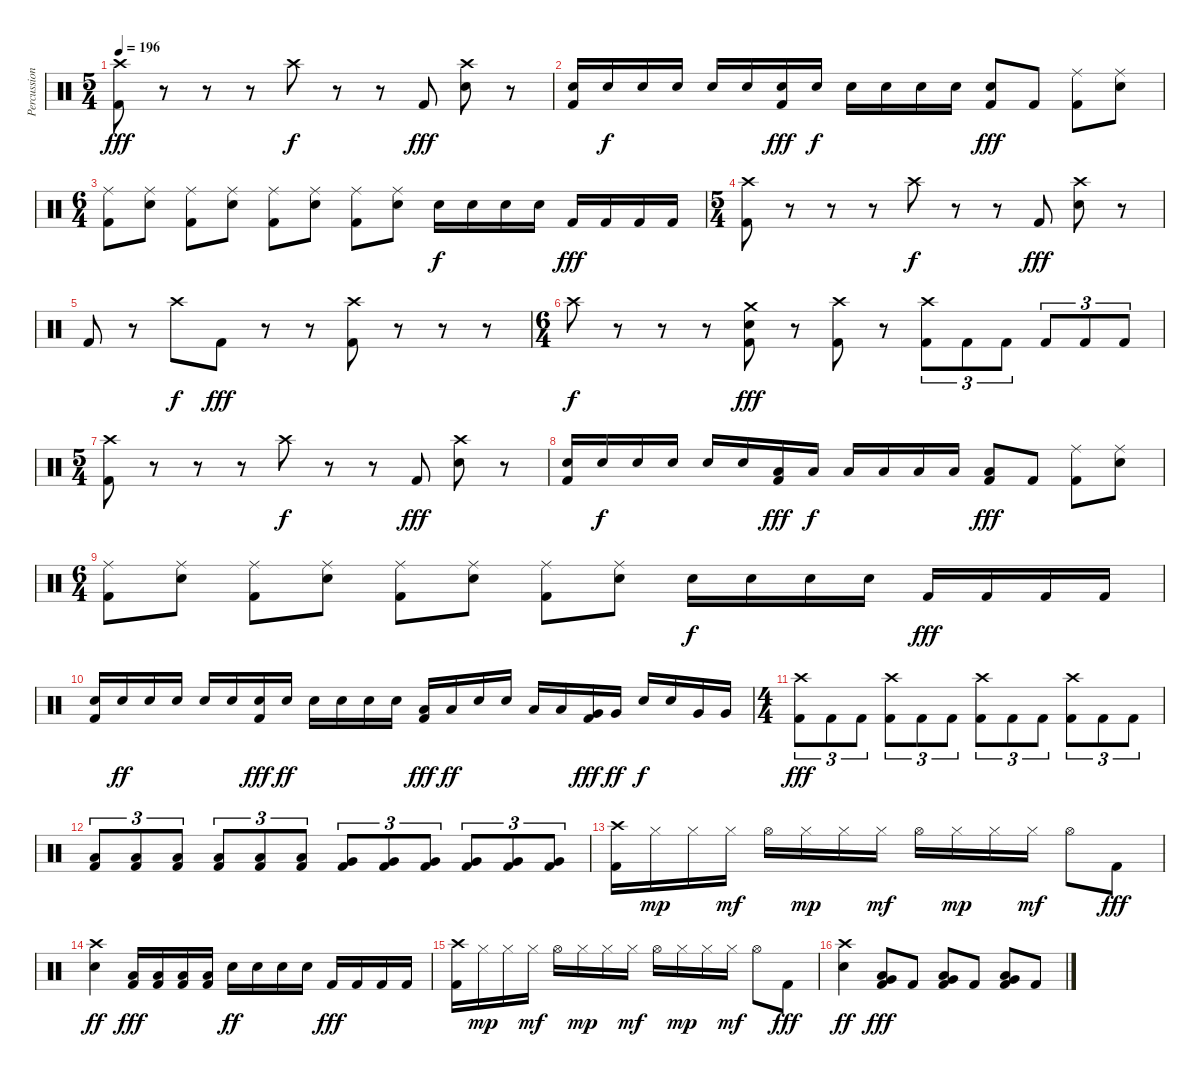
\track ("Percussion" "Percussion") {instrument percussion}
\staff {score}
\articulation defaults
\ts (5 4)
\tempo 196
\clef neutral
\ks c
("Crash high (hit)" "Kick (hit) 2").8{dy fff} r.8 r.8 r.8 "Crash high (hit)".8{dy f} r.8 r.8 "Kick (hit) 2".8{dy fff} ("Crash high (hit)" "Electric Snare (hit)").8 r.8 |
("Electric Snare (hit)" "Kick (hit) 2").16 "Electric Snare (hit)".16{dy f} "Electric Snare (hit)".16 "Electric Snare (hit)".16 "Electric Snare (hit)".16 "Electric Snare (hit)".16 ("Electric Snare (hit)" "Kick (hit) 2").16{dy fff} "Electric Snare (hit)".16{dy f} "Electric Snare (hit)".16 "Electric Snare (hit)".16 "Electric Snare (hit)".16 "Electric Snare (hit)".16 ("Electric Snare (hit)" "Kick (hit) 2").8{dy fff} "Kick (hit) 2".8 ("Ride (middle)" "Kick (hit) 2").8 ("Ride (middle)" "Electric Snare (hit)").8 |
\ts (6 4)
("Ride (middle)" "Kick (hit) 2").8 ("Ride (middle)" "Electric Snare (hit)").8 ("Ride (middle)" "Kick (hit) 2").8 ("Ride (middle)" "Electric Snare (hit)").8 ("Ride (middle)" "Kick (hit) 2").8 ("Ride (middle)" "Electric Snare (hit)").8 ("Ride (middle)" "Kick (hit) 2").8 ("Ride (middle)" "Electric Snare (hit)").8 "Electric Snare (hit)".16{dy f} "Electric Snare (hit)".16 "Electric Snare (hit)".16 "Electric Snare (hit)".16 "Kick (hit) 2".16{dy fff} "Kick (hit) 2".16 "Kick (hit) 2".16 "Kick (hit) 2".16 |
\ts (5 4)
("Crash high (hit)" "Kick (hit) 2").8 r.8 r.8 r.8 "Crash high (hit)".8{dy f} r.8 r.8 "Kick (hit) 2".8{dy fff} ("Crash high (hit)" "Electric Snare (hit)").8 r.8 |
"Kick (hit) 2".8 r.8 "Crash high (hit)".8{dy f} "Kick (hit) 2".8{dy fff} r.8 r.8 ("Crash high (hit)" "Kick (hit) 2").8 r.8 r.8 r.8 |
\ts (6 4)
"Crash high (hit)".8{dy f} r.8 r.8 r.8 ("Crash medium (hit)" "Electric Snare (hit)" "Kick (hit) 2").8{dy fff} r.8 ("Crash high (hit)" "Kick (hit) 2").8 r.8 ("Crash high (hit)" "Kick (hit) 2").8{tu (3 2)} "Kick (hit) 2".8{tu (3 2)} "Kick (hit) 2".8{tu (3 2)} "Kick (hit) 2".8{tu (3 2)} "Kick (hit) 2".8{tu (3 2)} "Kick (hit) 2".8{tu (3 2)} |
\ts (5 4)
("Crash high (hit)" "Kick (hit) 2").8 r.8 r.8 r.8 "Crash high (hit)".8{dy f} r.8 r.8 "Kick (hit) 2".8{dy fff} ("Crash high (hit)" "Electric Snare (hit)").8 r.8 |
("Electric Snare (hit)" "Kick (hit) 2").16 "Electric Snare (hit)".16{dy f} "Electric Snare (hit)".16 "Electric Snare (hit)".16 "Electric Snare (hit)".16 "Electric Snare (hit)".16 ("Low Tom (hit)" "Kick (hit) 2").16{dy fff} "Low Tom (hit)".16{dy f} "Low Tom (hit)".16 "Low Tom (hit)".16 "Low Tom (hit)".16 "Low Tom (hit)".16 ("Low Tom (hit)" "Kick (hit) 2").8{dy fff} "Kick (hit) 2".8 ("Ride (middle)" "Kick (hit) 2").8 ("Ride (middle)" "Electric Snare (hit)").8 |
\ts (6 4)
("Ride (middle)" "Kick (hit) 2").8 ("Ride (middle)" "Electric Snare (hit)").8 ("Ride (middle)" "Kick (hit) 2").8 ("Ride (middle)" "Electric Snare (hit)").8 ("Ride (middle)" "Kick (hit) 2").8 ("Ride (middle)" "Electric Snare (hit)").8 ("Ride (middle)" "Kick (hit) 2").8 ("Ride (middle)" "Electric Snare (hit)").8 "Electric Snare (hit)".16{dy f} "Electric Snare (hit)".16 "Electric Snare (hit)".16 "Electric Snare (hit)".16 "Kick (hit) 2".16{dy fff} "Kick (hit) 2".16 "Kick (hit) 2".16 "Kick (hit) 2".16 |
("Electric Snare (hit)" "Kick (hit) 2").16 "Electric Snare (hit)".16{dy ff} "Electric Snare (hit)".16 "Electric Snare (hit)".16 "Electric Snare (hit)".16 "Electric Snare (hit)".16 ("Electric Snare (hit)" "Kick (hit) 2").16{dy fff} "Electric Snare (hit)".16{dy ff} "Electric Snare (hit)".16 "Electric Snare (hit)".16 "Electric Snare (hit)".16 "Electric Snare (hit)".16 ("Low Tom (hit)" "Kick (hit) 2").16{dy fff} "Low Tom (hit)".16{dy ff} "Electric Snare (hit)".16 "Electric Snare (hit)".16 "Low Tom (hit)".16 "Low Tom (hit)".16 ("Very Low Tom (hit)" "Kick (hit) 2").16{dy fff} "Very Low Tom (hit)".16{dy ff} "Electric Snare (hit)".16{dy f} "Electric Snare (hit)".16 "Very Low Tom (hit)".16 "Very Low Tom (hit)".16 |
\ts (4 4)
("Crash high (hit)" "Kick (hit) 2").8{tu (3 2) dy fff} "Kick (hit) 2".8{tu (3 2)} "Kick (hit) 2".8{tu (3 2)} ("Crash high (hit)" "Kick (hit) 2").8{tu (3 2)} "Kick (hit) 2".8{tu (3 2)} "Kick (hit) 2".8{tu (3 2)} ("Crash high (hit)" "Kick (hit) 2").8{tu (3 2)} "Kick (hit) 2".8{tu (3 2)} "Kick (hit) 2".8{tu (3 2)} ("Crash high (hit)" "Kick (hit) 2").8{tu (3 2)} "Kick (hit) 2".8{tu (3 2)} "Kick (hit) 2".8{tu (3 2)} |
("Low Tom (hit)" "Kick (hit) 2").8{tu (3 2)} ("Low Tom (hit)" "Kick (hit) 2").8{tu (3 2)} ("Low Tom (hit)" "Kick (hit) 2").8{tu (3 2)} ("Low Tom (hit)" "Kick (hit) 2").8{tu (3 2)} ("Low Tom (hit)" "Kick (hit) 2").8{tu (3 2)} ("Low Tom (hit)" "Kick (hit) 2").8{tu (3 2)} ("Very Low Tom (hit)" "Kick (hit) 2").8{tu (3 2)} ("Very Low Tom (hit)" "Kick (hit) 2").8{tu (3 2)} ("Very Low Tom (hit)" "Kick (hit) 2").8{tu (3 2)} ("Very Low Tom (hit)" "Kick (hit) 2").8{tu (3 2)} ("Very Low Tom (hit)" "Kick (hit) 2").8{tu (3 2)} ("Very Low Tom (hit)" "Kick (hit) 2").8{tu (3 2)} |
("Crash high (hit)" "Kick (hit) 2").16 "Hi-Hat (closed)".16{dy mp} "Hi-Hat (closed)".16 "Hi-Hat (closed)".16{dy mf} "Hi-Hat (open)".16 "Hi-Hat (closed)".16{dy mp} "Hi-Hat (closed)".16 "Hi-Hat (closed)".16{dy mf} "Hi-Hat (open)".16 "Hi-Hat (closed)".16{dy mp} "Hi-Hat (closed)".16 "Hi-Hat (closed)".16{dy mf} "Hi-Hat (open)".8 "Kick (hit) 2".8{dy fff} |
("Crash high (hit)" "Electric Snare (hit)").4{dy ff} ("Low Tom (hit)" "Kick (hit) 2").16{dy fff} ("Low Tom (hit)" "Kick (hit) 2").16 ("Low Tom (hit)" "Kick (hit) 2").16 ("Low Tom (hit)" "Kick (hit) 2").16 "Electric Snare (hit)".16{dy ff} "Electric Snare (hit)".16 "Electric Snare (hit)".16 "Electric Snare (hit)".16 "Kick (hit) 2".16{dy fff} "Kick (hit) 2".16 "Kick (hit) 2".16 "Kick (hit) 2".16 |
("Crash high (hit)" "Kick (hit) 2").16 "Hi-Hat (closed)".16{dy mp} "Hi-Hat (closed)".16 "Hi-Hat (closed)".16{dy mf} "Hi-Hat (open)".16 "Hi-Hat (closed)".16{dy mp} "Hi-Hat (closed)".16 "Hi-Hat (closed)".16{dy mf} "Hi-Hat (open)".16 "Hi-Hat (closed)".16{dy mp} "Hi-Hat (closed)".16 "Hi-Hat (closed)".16{dy mf} "Hi-Hat (open)".8 "Kick (hit) 2".8{dy fff} |
("Crash high (hit)" "Electric Snare (hit)").4{dy ff} ("Low Tom (hit)" "Very Low Tom (hit)" "Kick (hit) 2").8{dy fff} "Kick (hit) 2".8 ("Low Tom (hit)" "Very Low Tom (hit)" "Kick (hit) 2").8 "Kick (hit) 2".8 ("Low Tom (hit)" "Very Low Tom (hit)" "Kick (hit) 2").8 "Kick (hit) 2".8
